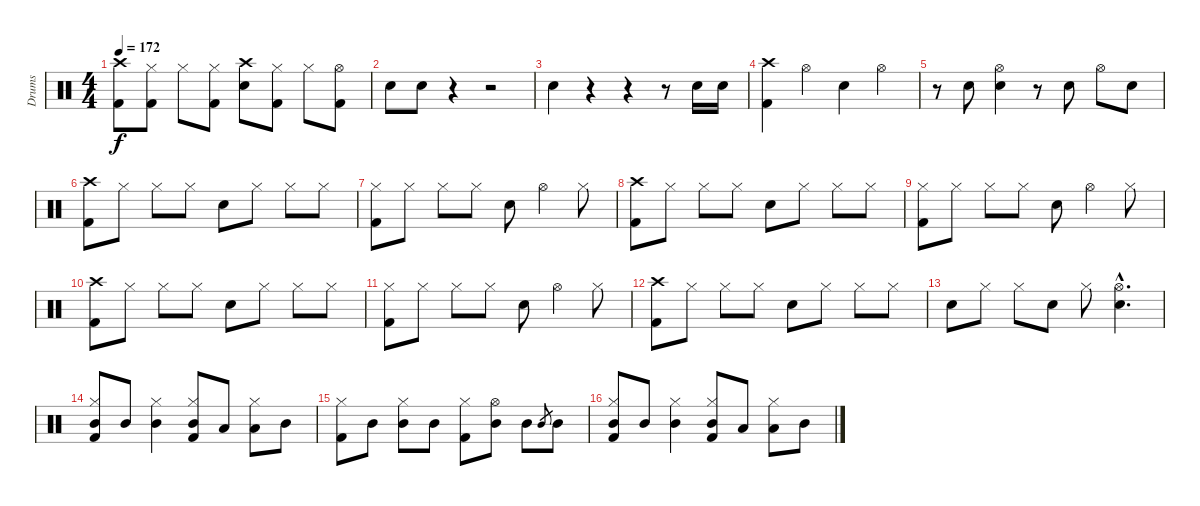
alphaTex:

\track ("Drums" "Drums") {instrument percussion}
\staff {score}
\articulation defaults
\ts (4 4)
\tempo 172
\clef neutral
\ks c
("Crash high (hit)" "Kick (hit) 2").8{dy f} ("Hi-Hat (closed)" "Kick (hit) 2").8 "Hi-Hat (closed)".8 ("Hi-Hat (closed)" "Kick (hit) 2").8 ("Crash high (hit)" "Electric Snare (hit)").8 ("Hi-Hat (closed)" "Kick (hit) 2").8 "Hi-Hat (closed)".8 ("Hi-Hat (open)" "Kick (hit) 2").8 |
"Electric Snare (hit)".8 "Electric Snare (hit)".8 r.4 r.2 |
"Electric Snare (hit)".4 r.4 r.4 r.8 "Electric Snare (hit)".16 "Electric Snare (hit)".16 |
("Crash high (hit)" "Kick (hit) 2").4 "Hi-Hat (open)".4 "Electric Snare (hit)".4 "Hi-Hat (open)".4 |
r.8 "Electric Snare (hit)".8 ("Hi-Hat (open)" "Electric Snare (hit)").4 r.8 "Electric Snare (hit)".8 "Hi-Hat (open)".8 "Electric Snare (hit)".8 |
("Crash high (hit)" "Kick (hit) 2").8 "Hi-Hat (closed)".8 "Hi-Hat (closed)".8 "Hi-Hat (closed)".8 "Electric Snare (hit)".8 "Hi-Hat (closed)".8 "Hi-Hat (closed)".8 "Hi-Hat (closed)".8 |
("Hi-Hat (closed)" "Kick (hit) 2").8 "Hi-Hat (closed)".8 "Hi-Hat (closed)".8 "Hi-Hat (closed)".8 "Electric Snare (hit)".8 "Hi-Hat (open)".4 "Hi-Hat (closed)".8 |
("Crash high (hit)" "Kick (hit) 2").8 "Hi-Hat (closed)".8 "Hi-Hat (closed)".8 "Hi-Hat (closed)".8 "Electric Snare (hit)".8 "Hi-Hat (closed)".8 "Hi-Hat (closed)".8 "Hi-Hat (closed)".8 |
("Hi-Hat (closed)" "Kick (hit) 2").8 "Hi-Hat (closed)".8 "Hi-Hat (closed)".8 "Hi-Hat (closed)".8 "Electric Snare (hit)".8 "Hi-Hat (open)".4 "Hi-Hat (closed)".8 |
("Crash high (hit)" "Kick (hit) 2").8 "Hi-Hat (closed)".8 "Hi-Hat (closed)".8 "Hi-Hat (closed)".8 "Electric Snare (hit)".8 "Hi-Hat (closed)".8 "Hi-Hat (closed)".8 "Hi-Hat (closed)".8 |
("Hi-Hat (closed)" "Kick (hit) 2").8 "Hi-Hat (closed)".8 "Hi-Hat (closed)".8 "Hi-Hat (closed)".8 "Electric Snare (hit)".8 "Hi-Hat (open)".4 "Hi-Hat (closed)".8 |
("Crash high (hit)" "Kick (hit) 2").8 "Hi-Hat (closed)".8 "Hi-Hat (closed)".8 "Hi-Hat (closed)".8 "Electric Snare (hit)".8 "Hi-Hat (closed)".8 "Hi-Hat (closed)".8 "Hi-Hat (closed)".8 |
"Electric Snare (hit)".8 "Hi-Hat (closed)".8 "Hi-Hat (closed)".8 "Electric Snare (hit)".8 "Hi-Hat (closed)".8 ("Hi-Hat (open)"{hac} "Electric Snare (hit)"{hac}).4{d} |
("Hi-Hat (closed)" "Mid Tom (hit)" "Kick (hit) 2").8 "Mid Tom (hit)".8 ("Hi-Hat (closed)" "Mid Tom (hit)").4 ("Hi-Hat (closed)" "Mid Tom (hit)" "Kick (hit) 2").8 "Low Tom (hit)".8 ("Hi-Hat (closed)" "Low Tom (hit)").8 "Mid Tom (hit)".8 |
("Hi-Hat (closed)" "Kick (hit) 2").8 "Mid Tom (hit)".8 ("Hi-Hat (closed)" "Mid Tom (hit)").8 "Mid Tom (hit)".8 ("Hi-Hat (closed)" "Kick (hit) 2").8 ("Hi-Hat (open)" "Mid Tom (hit)").8 "Mid Tom (hit)".8 "Mid Tom (hit)".8{gr} "Mid Tom (hit)".8 |
("Hi-Hat (closed)" "Mid Tom (hit)" "Kick (hit) 2").8 "Mid Tom (hit)".8 ("Hi-Hat (closed)" "Mid Tom (hit)").4 ("Hi-Hat (closed)" "Mid Tom (hit)" "Kick (hit) 2").8 "Low Tom (hit)".8 ("Hi-Hat (closed)" "Low Tom (hit)").8 "Mid Tom (hit)".8
